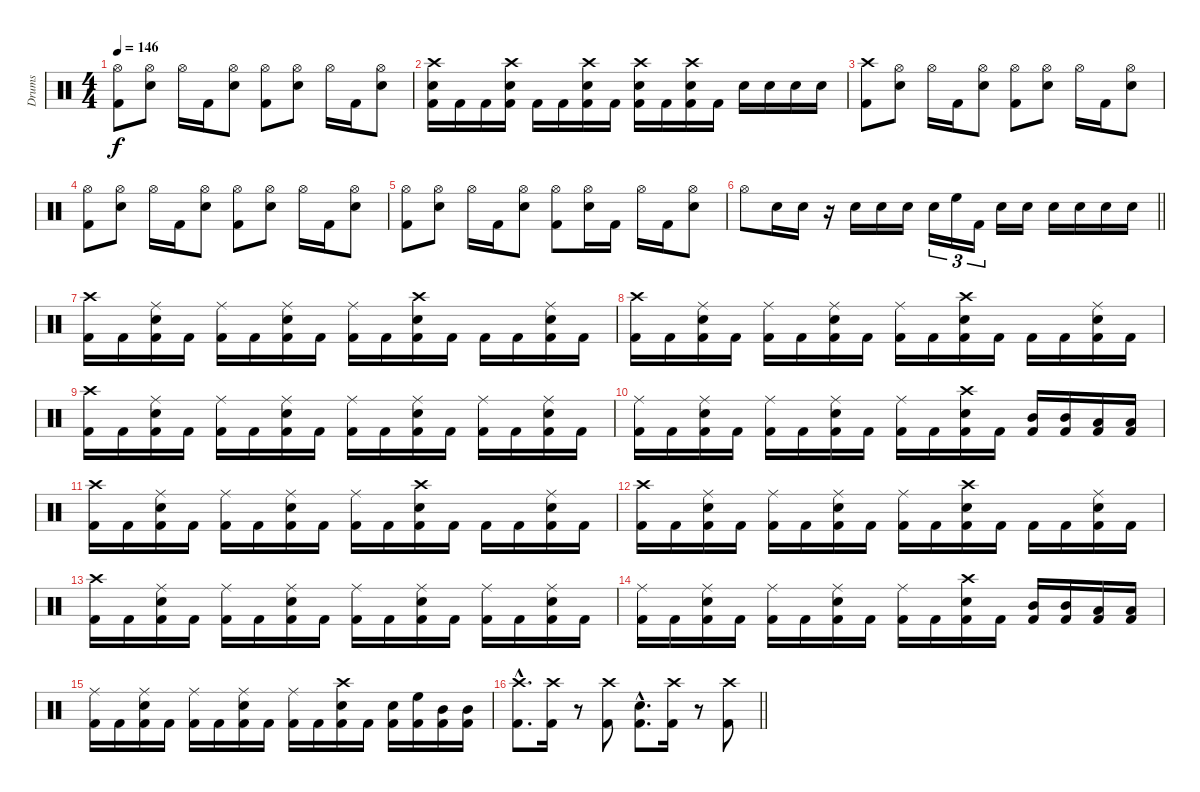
\track ("Drums" "Drums") {instrument percussion}
\staff {score}
\articulation defaults
\ts (4 4)
\tempo 146
\clef neutral
\ks c
("Hi-Hat (open)" "Kick (hit) 2").8{dy f} ("Hi-Hat (open)" "Snare (hit) 2").8 "Hi-Hat (open)".16 "Kick (hit) 2".16 ("Hi-Hat (open)" "Snare (hit) 2").8 ("Hi-Hat (open)" "Kick (hit) 2").8 ("Hi-Hat (open)" "Snare (hit) 2").8 "Hi-Hat (open)".16 "Kick (hit) 2".16 ("Hi-Hat (open)" "Snare (hit) 2").8 |
("Crash high (hit)" "Snare (hit) 2" "Kick (hit) 2").16 "Kick (hit) 2".16 "Kick (hit) 2".16 ("Crash high (hit)" "Snare (hit) 2" "Kick (hit) 2").16 "Kick (hit) 2".16 "Kick (hit) 2".16 ("Crash high (hit)" "Snare (hit) 2" "Kick (hit) 2").16 "Kick (hit) 2".16 ("Crash high (hit)" "Snare (hit) 2" "Kick (hit) 2").16 "Kick (hit) 2".16 ("Crash high (hit)" "Snare (hit) 2" "Kick (hit) 2").16 "Kick (hit) 2".16 "Snare (hit) 2".16 "Snare (hit) 2".16 "Snare (hit) 2".16 "Snare (hit) 2".16 |
("Crash high (hit)" "Kick (hit) 2").8 ("Hi-Hat (open)" "Snare (hit) 2").8 "Hi-Hat (open)".16 "Kick (hit) 2".16 ("Hi-Hat (open)" "Snare (hit) 2").8 ("Hi-Hat (open)" "Kick (hit) 2").8 ("Hi-Hat (open)" "Snare (hit) 2").8 "Hi-Hat (open)".16 "Kick (hit) 2".16 ("Hi-Hat (open)" "Snare (hit) 2").8 |
("Hi-Hat (open)" "Kick (hit) 2").8 ("Hi-Hat (open)" "Snare (hit) 2").8 "Hi-Hat (open)".16 "Kick (hit) 2".16 ("Hi-Hat (open)" "Snare (hit) 2").8 ("Hi-Hat (open)" "Kick (hit) 2").8 ("Hi-Hat (open)" "Snare (hit) 2").8 "Hi-Hat (open)".16 "Kick (hit) 2".16 ("Hi-Hat (open)" "Snare (hit) 2").8 |
("Hi-Hat (open)" "Kick (hit) 2").8 ("Hi-Hat (open)" "Snare (hit) 2").8 "Hi-Hat (open)".16 "Kick (hit) 2".16 ("Hi-Hat (open)" "Snare (hit) 2").8 ("Hi-Hat (open)" "Kick (hit) 2").8 ("Hi-Hat (open)" "Snare (hit) 2").16 "Kick (hit) 2".16 "Hi-Hat (open)".16 "Kick (hit) 2".16 ("Hi-Hat (open)" "Snare (hit) 2").8 |
\barLineRight lightlight "Hi-Hat (open)".8 "Snare (hit) 2".16 "Snare (hit) 2".16
r.16 "Snare (hit) 2".16 "Snare (hit) 2".16 "Snare (hit) 2".16 "Snare (hit) 2".16{tu (3 2)} "High Floor Tom (hit)".16{tu (3 2)} "Kick (hit) 2".16{tu (3 2)} "Snare (hit) 2".16 "Snare (hit) 2".16 "Snare (hit) 2".16 "Snare (hit) 2".16 "Snare (hit) 2".16 "Snare (hit) 2".16 |
("Crash high (hit)" "Kick (hit) 2").16 "Kick (hit) 2".16 ("Ride (middle)" "Snare (hit) 2" "Kick (hit) 2").16 "Kick (hit) 2".16 ("Ride (middle)" "Kick (hit) 2").16 "Kick (hit) 2".16 ("Ride (middle)" "Snare (hit) 2" "Kick (hit) 2").16 "Kick (hit) 2".16 ("Ride (middle)" "Kick (hit) 2").16 "Kick (hit) 2".16 ("Crash high (hit)" "Snare (hit) 2" "Kick (hit) 2").16 "Kick (hit) 2".16 "Kick (hit) 2".16 "Kick (hit) 2".16 ("Ride (middle)" "Snare (hit) 2" "Kick (hit) 2").16 "Kick (hit) 2".16 |
("Crash high (hit)" "Kick (hit) 2").16 "Kick (hit) 2".16 ("Ride (middle)" "Snare (hit) 2" "Kick (hit) 2").16 "Kick (hit) 2".16 ("Ride (middle)" "Kick (hit) 2").16 "Kick (hit) 2".16 ("Ride (middle)" "Snare (hit) 2" "Kick (hit) 2").16 "Kick (hit) 2".16 ("Ride (middle)" "Kick (hit) 2").16 "Kick (hit) 2".16 ("Crash high (hit)" "Snare (hit) 2" "Kick (hit) 2").16 "Kick (hit) 2".16 "Kick (hit) 2".16 "Kick (hit) 2".16 ("Ride (middle)" "Snare (hit) 2" "Kick (hit) 2").16 "Kick (hit) 2".16 |
("Crash high (hit)" "Kick (hit) 2").16 "Kick (hit) 2".16 ("Ride (middle)" "Snare (hit) 2" "Kick (hit) 2").16 "Kick (hit) 2".16 ("Ride (middle)" "Kick (hit) 2").16 "Kick (hit) 2".16 ("Ride (middle)" "Snare (hit) 2" "Kick (hit) 2").16 "Kick (hit) 2".16 ("Ride (middle)" "Kick (hit) 2").16 "Kick (hit) 2".16 ("Ride (middle)" "Snare (hit) 2" "Kick (hit) 2").16 "Kick (hit) 2".16 ("Ride (middle)" "Kick (hit) 2").16 "Kick (hit) 2".16 ("Ride (middle)" "Snare (hit) 2" "Kick (hit) 2").16 "Kick (hit) 2".16 |
("Ride (middle)" "Kick (hit) 2").16 "Kick (hit) 2".16 ("Ride (middle)" "Snare (hit) 2" "Kick (hit) 2").16 "Kick (hit) 2".16 ("Ride (middle)" "Kick (hit) 2").16 "Kick (hit) 2".16 ("Ride (middle)" "Snare (hit) 2" "Kick (hit) 2").16 "Kick (hit) 2".16 ("Ride (middle)" "Kick (hit) 2").16 "Kick (hit) 2".16 ("Crash high (hit)" "Snare (hit) 2" "Kick (hit) 2").16 "Kick (hit) 2".16 ("Mid Tom (hit)" "Kick (hit) 2").16 ("Mid Tom (hit)" "Kick (hit) 2").16 ("Low Floor Tom (hit)" "Kick (hit) 2").16 ("Low Floor Tom (hit)" "Kick (hit) 2").16 |
("Crash high (hit)" "Kick (hit) 2").16 "Kick (hit) 2".16 ("Ride (middle)" "Snare (hit) 2" "Kick (hit) 2").16 "Kick (hit) 2".16 ("Ride (middle)" "Kick (hit) 2").16 "Kick (hit) 2".16 ("Ride (middle)" "Snare (hit) 2" "Kick (hit) 2").16 "Kick (hit) 2".16 ("Ride (middle)" "Kick (hit) 2").16 "Kick (hit) 2".16 ("Crash high (hit)" "Snare (hit) 2" "Kick (hit) 2").16 "Kick (hit) 2".16 "Kick (hit) 2".16 "Kick (hit) 2".16 ("Ride (middle)" "Snare (hit) 2" "Kick (hit) 2").16 "Kick (hit) 2".16 |
("Crash high (hit)" "Kick (hit) 2").16 "Kick (hit) 2".16 ("Ride (middle)" "Snare (hit) 2" "Kick (hit) 2").16 "Kick (hit) 2".16 ("Ride (middle)" "Kick (hit) 2").16 "Kick (hit) 2".16 ("Ride (middle)" "Snare (hit) 2" "Kick (hit) 2").16 "Kick (hit) 2".16 ("Ride (middle)" "Kick (hit) 2").16 "Kick (hit) 2".16 ("Crash high (hit)" "Snare (hit) 2" "Kick (hit) 2").16 "Kick (hit) 2".16 "Kick (hit) 2".16 "Kick (hit) 2".16 ("Ride (middle)" "Snare (hit) 2" "Kick (hit) 2").16 "Kick (hit) 2".16 |
("Crash high (hit)" "Kick (hit) 2").16 "Kick (hit) 2".16 ("Ride (middle)" "Snare (hit) 2" "Kick (hit) 2").16 "Kick (hit) 2".16 ("Ride (middle)" "Kick (hit) 2").16 "Kick (hit) 2".16 ("Ride (middle)" "Snare (hit) 2" "Kick (hit) 2").16 "Kick (hit) 2".16 ("Ride (middle)" "Kick (hit) 2").16 "Kick (hit) 2".16 ("Ride (middle)" "Snare (hit) 2" "Kick (hit) 2").16 "Kick (hit) 2".16 ("Ride (middle)" "Kick (hit) 2").16 "Kick (hit) 2".16 ("Ride (middle)" "Snare (hit) 2" "Kick (hit) 2").16 "Kick (hit) 2".16 |
("Ride (middle)" "Kick (hit) 2").16 "Kick (hit) 2".16 ("Ride (middle)" "Snare (hit) 2" "Kick (hit) 2").16 "Kick (hit) 2".16 ("Ride (middle)" "Kick (hit) 2").16 "Kick (hit) 2".16 ("Ride (middle)" "Snare (hit) 2" "Kick (hit) 2").16 "Kick (hit) 2".16 ("Ride (middle)" "Kick (hit) 2").16 "Kick (hit) 2".16 ("Crash high (hit)" "Snare (hit) 2" "Kick (hit) 2").16 "Kick (hit) 2".16 ("Mid Tom (hit)" "Kick (hit) 2").16 ("Mid Tom (hit)" "Kick (hit) 2").16 ("Low Floor Tom (hit)" "Kick (hit) 2").16 ("Low Floor Tom (hit)" "Kick (hit) 2").16 |
("Ride (middle)" "Kick (hit) 2").16 "Kick (hit) 2".16 ("Ride (middle)" "Snare (hit) 2" "Kick (hit) 2").16 "Kick (hit) 2".16 ("Ride (middle)" "Kick (hit) 2").16 "Kick (hit) 2".16 ("Ride (middle)" "Snare (hit) 2" "Kick (hit) 2").16 "Kick (hit) 2".16 ("Ride (middle)" "Kick (hit) 2").16 "Kick (hit) 2".16 ("Crash high (hit)" "Snare (hit) 2" "Kick (hit) 2").16 "Kick (hit) 2".16 ("Snare (hit) 2" "Kick (hit) 2").16 ("High Floor Tom (hit)" "Kick (hit) 2").16 ("Mid Tom (hit)" "Kick (hit) 2").16 ("Mid Tom (hit)" "Kick (hit) 2").16 |
\barLineRight lightlight
("Crash high (hit)"{hac} "Kick (hit) 2"{hac}).8{d} ("Crash high (hit)" "Kick (hit) 2").16 r.8 ("Crash high (hit)" "Kick (hit) 2").8 ("Snare (hit) 2"{hac} "Kick (hit) 2"{hac}).8{d} ("Crash high (hit)" "Kick (hit) 2").16 r.8 ("Crash high (hit)" "Kick (hit) 2").8
